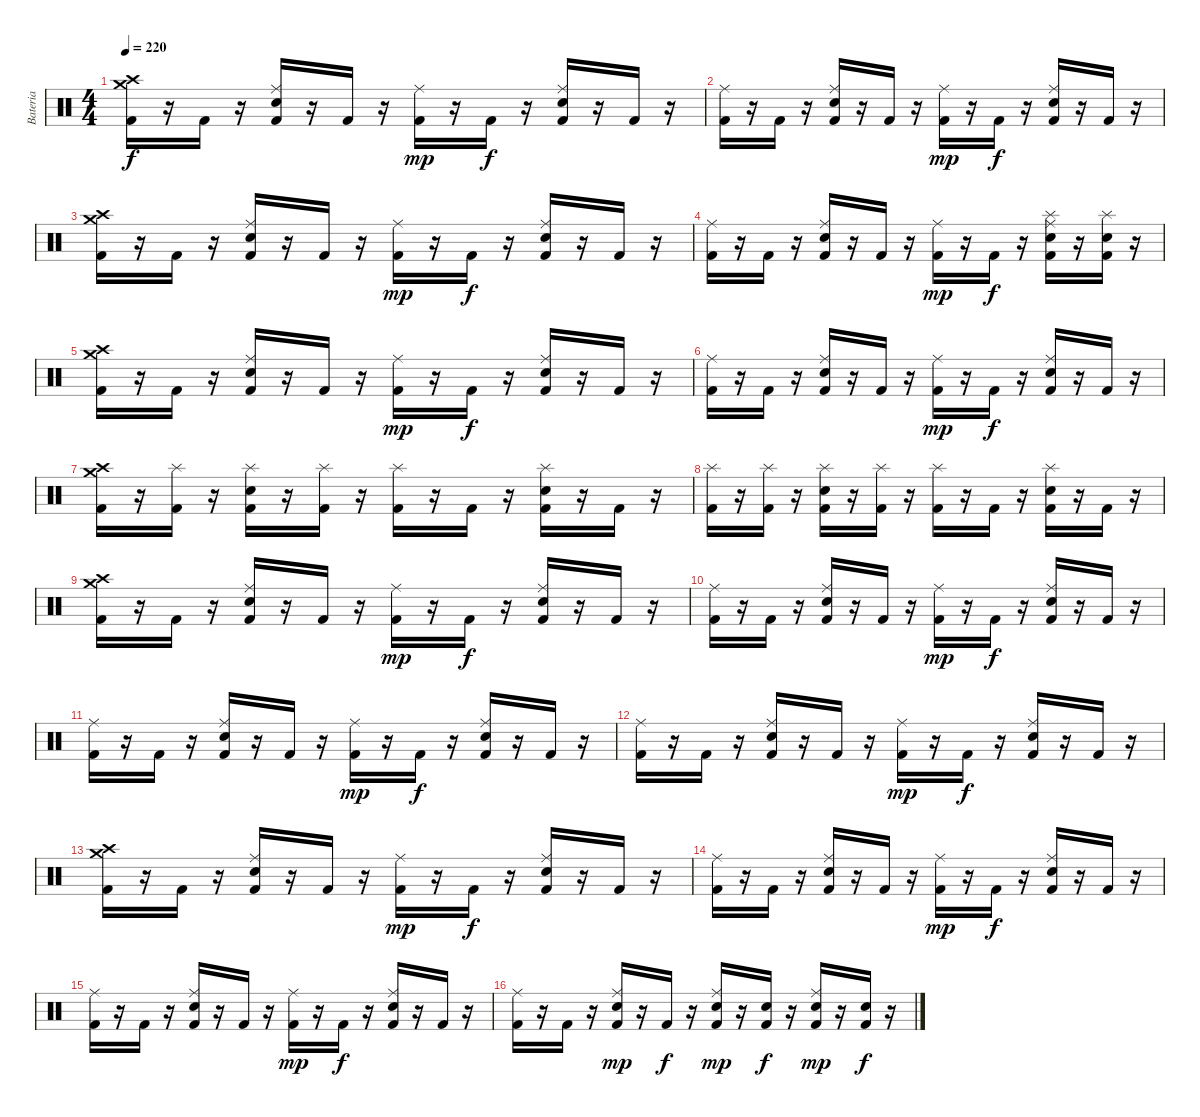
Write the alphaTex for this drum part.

\track ("Bateria" "Bateria") {instrument percussion}
\staff {score}
\articulation defaults
\ts (4 4)
\tempo 220
\clef neutral
\ks c
("Crash medium (hit)" "Crash high (hit)" "Kick (hit) 2").16{dy f} r.16 "Kick (hit) 2".16 r.16 ("Ride (middle)" "Electric Snare (hit)" "Kick (hit) 2").16 r.16 "Kick (hit) 2".16 r.16 ("Ride (middle)" "Kick (hit) 2").16{dy mp} r.16 "Kick (hit) 2".16{dy f} r.16 ("Ride (middle)" "Electric Snare (hit)" "Kick (hit) 2").16 r.16 "Kick (hit) 2".16 r.16 |
("Ride (middle)" "Kick (hit) 2").16 r.16 "Kick (hit) 2".16 r.16 ("Ride (middle)" "Electric Snare (hit)" "Kick (hit) 2").16 r.16 "Kick (hit) 2".16 r.16 ("Ride (middle)" "Kick (hit) 2").16{dy mp} r.16 "Kick (hit) 2".16{dy f} r.16 ("Ride (middle)" "Electric Snare (hit)" "Kick (hit) 2").16 r.16 "Kick (hit) 2".16 r.16 |
("Crash medium (hit)" "Crash high (hit)" "Kick (hit) 2").16 r.16 "Kick (hit) 2".16 r.16 ("Ride (middle)" "Electric Snare (hit)" "Kick (hit) 2").16 r.16 "Kick (hit) 2".16 r.16 ("Ride (middle)" "Kick (hit) 2").16{dy mp} r.16 "Kick (hit) 2".16{dy f} r.16 ("Ride (middle)" "Electric Snare (hit)" "Kick (hit) 2").16 r.16 "Kick (hit) 2".16 r.16 |
("Ride (middle)" "Kick (hit) 2").16 r.16 "Kick (hit) 2".16 r.16 ("Ride (middle)" "Electric Snare (hit)" "Kick (hit) 2").16 r.16 "Kick (hit) 2".16 r.16 ("Ride (middle)" "Kick (hit) 2").16{dy mp} r.16 "Kick (hit) 2".16{dy f} r.16 ("Splash (hit)" "Ride (middle)" "Electric Snare (hit)" "Kick (hit) 2").16 r.16 ("Splash (hit)" "Electric Snare (hit)" "Kick (hit) 2").16 r.16 |
("Crash medium (hit)" "Crash high (hit)" "Kick (hit) 2").16 r.16 "Kick (hit) 2".16 r.16 ("Ride (middle)" "Electric Snare (hit)" "Kick (hit) 2").16 r.16 "Kick (hit) 2".16 r.16 ("Ride (middle)" "Kick (hit) 2").16{dy mp} r.16 "Kick (hit) 2".16{dy f} r.16 ("Ride (middle)" "Electric Snare (hit)" "Kick (hit) 2").16 r.16 "Kick (hit) 2".16 r.16 |
("Ride (middle)" "Kick (hit) 2").16 r.16 "Kick (hit) 2".16 r.16 ("Ride (middle)" "Electric Snare (hit)" "Kick (hit) 2").16 r.16 "Kick (hit) 2".16 r.16 ("Ride (middle)" "Kick (hit) 2").16{dy mp} r.16 "Kick (hit) 2".16{dy f} r.16 ("Ride (middle)" "Electric Snare (hit)" "Kick (hit) 2").16 r.16 "Kick (hit) 2".16 r.16 |
("Crash medium (hit)" "Crash high (hit)" "Kick (hit) 2").16 r.16 ("Splash (hit)" "Kick (hit) 2").16 r.16 ("Splash (hit)" "Electric Snare (hit)" "Kick (hit) 2").16 r.16 ("Splash (hit)" "Kick (hit) 2").16 r.16 ("Splash (hit)" "Kick (hit) 2").16 r.16 "Kick (hit) 2".16 r.16 ("Splash (hit)" "Electric Snare (hit)" "Kick (hit) 2").16 r.16 "Kick (hit) 2".16 r.16 |
("Splash (hit)" "Kick (hit) 2").16 r.16 ("Splash (hit)" "Kick (hit) 2").16 r.16 ("Splash (hit)" "Electric Snare (hit)" "Kick (hit) 2").16 r.16 ("Splash (hit)" "Kick (hit) 2").16 r.16 ("Splash (hit)" "Kick (hit) 2").16 r.16 "Kick (hit) 2".16 r.16 ("Splash (hit)" "Electric Snare (hit)" "Kick (hit) 2").16 r.16 "Kick (hit) 2".16 r.16 |
("Crash medium (hit)" "Crash high (hit)" "Kick (hit) 2").16 r.16 "Kick (hit) 2".16 r.16 ("Ride (middle)" "Electric Snare (hit)" "Kick (hit) 2").16 r.16 "Kick (hit) 2".16 r.16 ("Ride (middle)" "Kick (hit) 2").16{dy mp} r.16 "Kick (hit) 2".16{dy f} r.16 ("Ride (middle)" "Electric Snare (hit)" "Kick (hit) 2").16 r.16 "Kick (hit) 2".16 r.16 |
("Ride (middle)" "Kick (hit) 2").16 r.16 "Kick (hit) 2".16 r.16 ("Ride (middle)" "Electric Snare (hit)" "Kick (hit) 2").16 r.16 "Kick (hit) 2".16 r.16 ("Ride (middle)" "Kick (hit) 2").16{dy mp} r.16 "Kick (hit) 2".16{dy f} r.16 ("Ride (middle)" "Electric Snare (hit)" "Kick (hit) 2").16 r.16 "Kick (hit) 2".16 r.16 |
("Ride (middle)" "Kick (hit) 2").16 r.16 "Kick (hit) 2".16 r.16 ("Ride (middle)" "Electric Snare (hit)" "Kick (hit) 2").16 r.16 "Kick (hit) 2".16 r.16 ("Ride (middle)" "Kick (hit) 2").16{dy mp} r.16 "Kick (hit) 2".16{dy f} r.16 ("Ride (middle)" "Electric Snare (hit)" "Kick (hit) 2").16 r.16 "Kick (hit) 2".16 r.16 |
("Ride (middle)" "Kick (hit) 2").16 r.16 "Kick (hit) 2".16 r.16 ("Ride (middle)" "Electric Snare (hit)" "Kick (hit) 2").16 r.16 "Kick (hit) 2".16 r.16 ("Ride (middle)" "Kick (hit) 2").16{dy mp} r.16 "Kick (hit) 2".16{dy f} r.16 ("Ride (middle)" "Electric Snare (hit)" "Kick (hit) 2").16 r.16 "Kick (hit) 2".16 r.16 |
("Crash medium (hit)" "Crash high (hit)" "Kick (hit) 2").16 r.16 "Kick (hit) 2".16 r.16 ("Ride (middle)" "Electric Snare (hit)" "Kick (hit) 2").16 r.16 "Kick (hit) 2".16 r.16 ("Ride (middle)" "Kick (hit) 2").16{dy mp} r.16 "Kick (hit) 2".16{dy f} r.16 ("Ride (middle)" "Electric Snare (hit)" "Kick (hit) 2").16 r.16 "Kick (hit) 2".16 r.16 |
("Ride (middle)" "Kick (hit) 2").16 r.16 "Kick (hit) 2".16 r.16 ("Ride (middle)" "Electric Snare (hit)" "Kick (hit) 2").16 r.16 "Kick (hit) 2".16 r.16 ("Ride (middle)" "Kick (hit) 2").16{dy mp} r.16 "Kick (hit) 2".16{dy f} r.16 ("Ride (middle)" "Electric Snare (hit)" "Kick (hit) 2").16 r.16 "Kick (hit) 2".16 r.16 |
("Ride (middle)" "Kick (hit) 2").16 r.16 "Kick (hit) 2".16 r.16 ("Ride (middle)" "Electric Snare (hit)" "Kick (hit) 2").16 r.16 "Kick (hit) 2".16 r.16 ("Ride (middle)" "Kick (hit) 2").16{dy mp} r.16 "Kick (hit) 2".16{dy f} r.16 ("Ride (middle)" "Electric Snare (hit)" "Kick (hit) 2").16 r.16 "Kick (hit) 2".16 r.16 |
("Ride (middle)" "Kick (hit) 2").16 r.16 "Kick (hit) 2".16 r.16 ("Ride (middle)" "Electric Snare (hit)" "Kick (hit) 2").16{dy mp} r.16 "Kick (hit) 2".16{dy f} r.16 ("Ride (middle)" "Electric Snare (hit)" "Kick (hit) 2").16{dy mp} r.16 ("Electric Snare (hit)" "Kick (hit) 2").16{dy f} r.16 ("Ride (middle)" "Electric Snare (hit)" "Kick (hit) 2").16{dy mp} r.16 ("Electric Snare (hit)" "Kick (hit) 2").16{dy f} r.16
